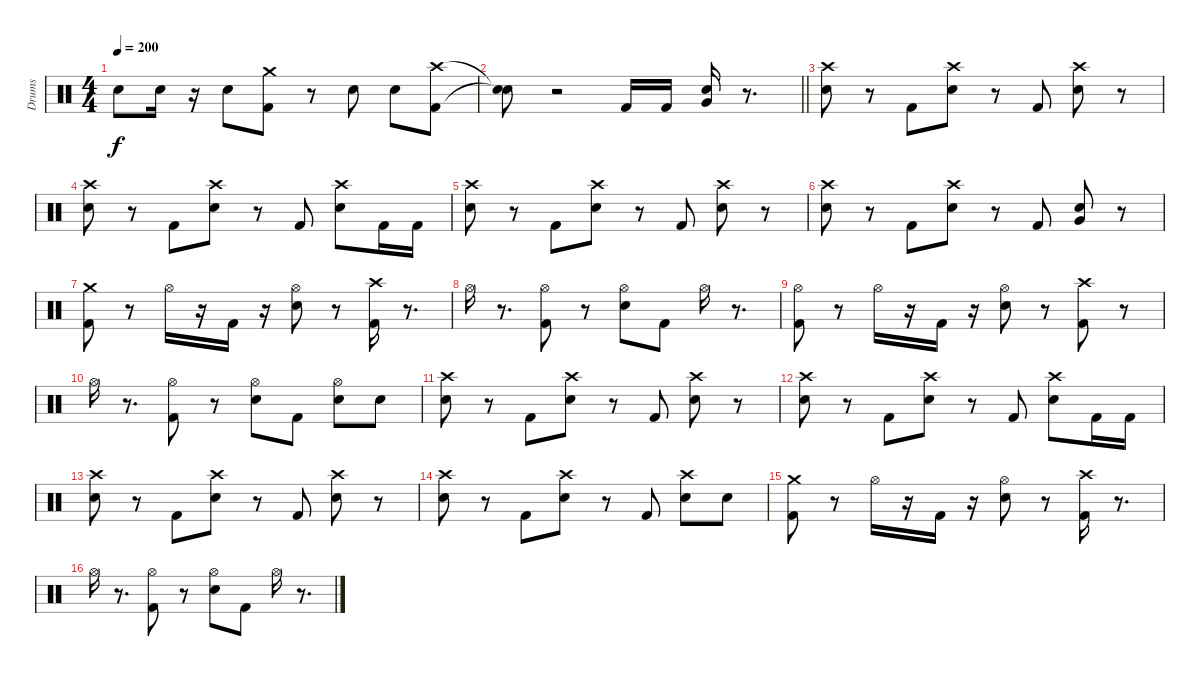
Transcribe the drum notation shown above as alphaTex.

\track ("Drums" "Drums") {instrument percussion}
\staff {score}
\articulation defaults
\ts (4 4)
\tempo 200
\clef neutral
\ks c "Snare (hit)"{t}.8{dy f} "Snare (hit) 2".16
r.16 "Snare (hit) 2".8 ("Kick (hit) 2" "Crash medium (hit)").8 r.8 "Snare (hit) 2".8 "Snare (hit) 2".8 ("Kick (hit) 2" "Crash high (hit)").8 |
\barLineRight lightlight
("Snare (hit)"{t} "Snare (hit)"{t}).8 r.2 "Kick (hit) 2".16 "Kick (hit) 2".16 ("Snare (hit) 2" "Very Low Tom (hit)").16 r.8{d} |
\section ("" " ")
("Snare (hit) 2" "Crash high (hit)").8 r.8 "Kick (hit) 2".8 ("Snare (hit) 2" "Crash high (hit)").8 r.8 "Kick (hit) 2".8 ("Snare (hit) 2" "Crash high (hit)").8 r.8 |
("Snare (hit) 2" "Crash high (hit)").8 r.8 "Kick (hit) 2".8 ("Snare (hit) 2" "Crash high (hit)").8 r.8 "Kick (hit) 2".8 ("Snare (hit) 2" "Crash high (hit)").8 "Kick (hit) 2".16 "Kick (hit) 2".16 |
("Snare (hit) 2" "Crash high (hit)").8 r.8 "Kick (hit) 2".8 ("Snare (hit) 2" "Crash high (hit)").8 r.8 "Kick (hit) 2".8 ("Snare (hit) 2" "Crash high (hit)").8 r.8 |
("Snare (hit) 2" "Crash high (hit)").8 r.8 "Kick (hit) 2".8 ("Snare (hit) 2" "Crash high (hit)").8 r.8 "Kick (hit) 2".8 ("Snare (hit) 2" "Very Low Tom (hit)").8 r.8 |
("Kick (hit) 2" "Crash medium (hit)").8 r.8 "Hi-Hat (open)".16 r.16 "Kick (hit) 2".16 r.16 ("Snare (hit) 2" "Hi-Hat (open)").8 r.8 ("Kick (hit) 2" "Crash high (hit)").16 r.8{d} |
"Hi-Hat (open)".16 r.8{d} ("Kick (hit) 2" "Hi-Hat (open)").8 r.8 ("Snare (hit) 2" "Hi-Hat (open)").8 "Kick (hit) 2".8 "Hi-Hat (open)".16 r.8{d} |
("Kick (hit) 2" "Hi-Hat (open)").8 r.8 "Hi-Hat (open)".16 r.16 "Kick (hit) 2".16 r.16 ("Snare (hit) 2" "Hi-Hat (open)").8 r.8 ("Kick (hit) 2" "Crash high (hit)").8 r.8 |
"Hi-Hat (open)".16 r.8{d} ("Kick (hit) 2" "Hi-Hat (open)").8 r.8 ("Snare (hit) 2" "Hi-Hat (open)").8 "Kick (hit) 2".8 ("Snare (hit) 2" "Hi-Hat (open)").8 "Snare (hit) 2".8 |
("Snare (hit) 2" "Crash high (hit)").8 r.8 "Kick (hit) 2".8 ("Snare (hit) 2" "Crash high (hit)").8 r.8 "Kick (hit) 2".8 ("Snare (hit) 2" "Crash high (hit)").8 r.8 |
("Snare (hit) 2" "Crash high (hit)").8 r.8 "Kick (hit) 2".8 ("Snare (hit) 2" "Crash high (hit)").8 r.8 "Kick (hit) 2".8 ("Snare (hit) 2" "Crash high (hit)").8 "Kick (hit) 2".16 "Kick (hit) 2".16 |
("Snare (hit) 2" "Crash high (hit)").8 r.8 "Kick (hit) 2".8 ("Snare (hit) 2" "Crash high (hit)").8 r.8 "Kick (hit) 2".8 ("Snare (hit) 2" "Crash high (hit)").8 r.8 |
("Snare (hit) 2" "Crash high (hit)").8 r.8 "Kick (hit) 2".8 ("Snare (hit) 2" "Crash high (hit)").8 r.8 "Kick (hit) 2".8 ("Snare (hit) 2" "Crash high (hit)").8 "Snare (hit) 2".8 |
("Kick (hit) 2" "Crash medium (hit)").8 r.8 "Hi-Hat (open)".16 r.16 "Kick (hit) 2".16 r.16 ("Snare (hit) 2" "Hi-Hat (open)").8 r.8 ("Kick (hit) 2" "Crash high (hit)").16 r.8{d} |
"Hi-Hat (open)".16 r.8{d} ("Kick (hit) 2" "Hi-Hat (open)").8 r.8 ("Snare (hit) 2" "Hi-Hat (open)").8 "Kick (hit) 2".8 "Hi-Hat (open)".16 r.8{d}
